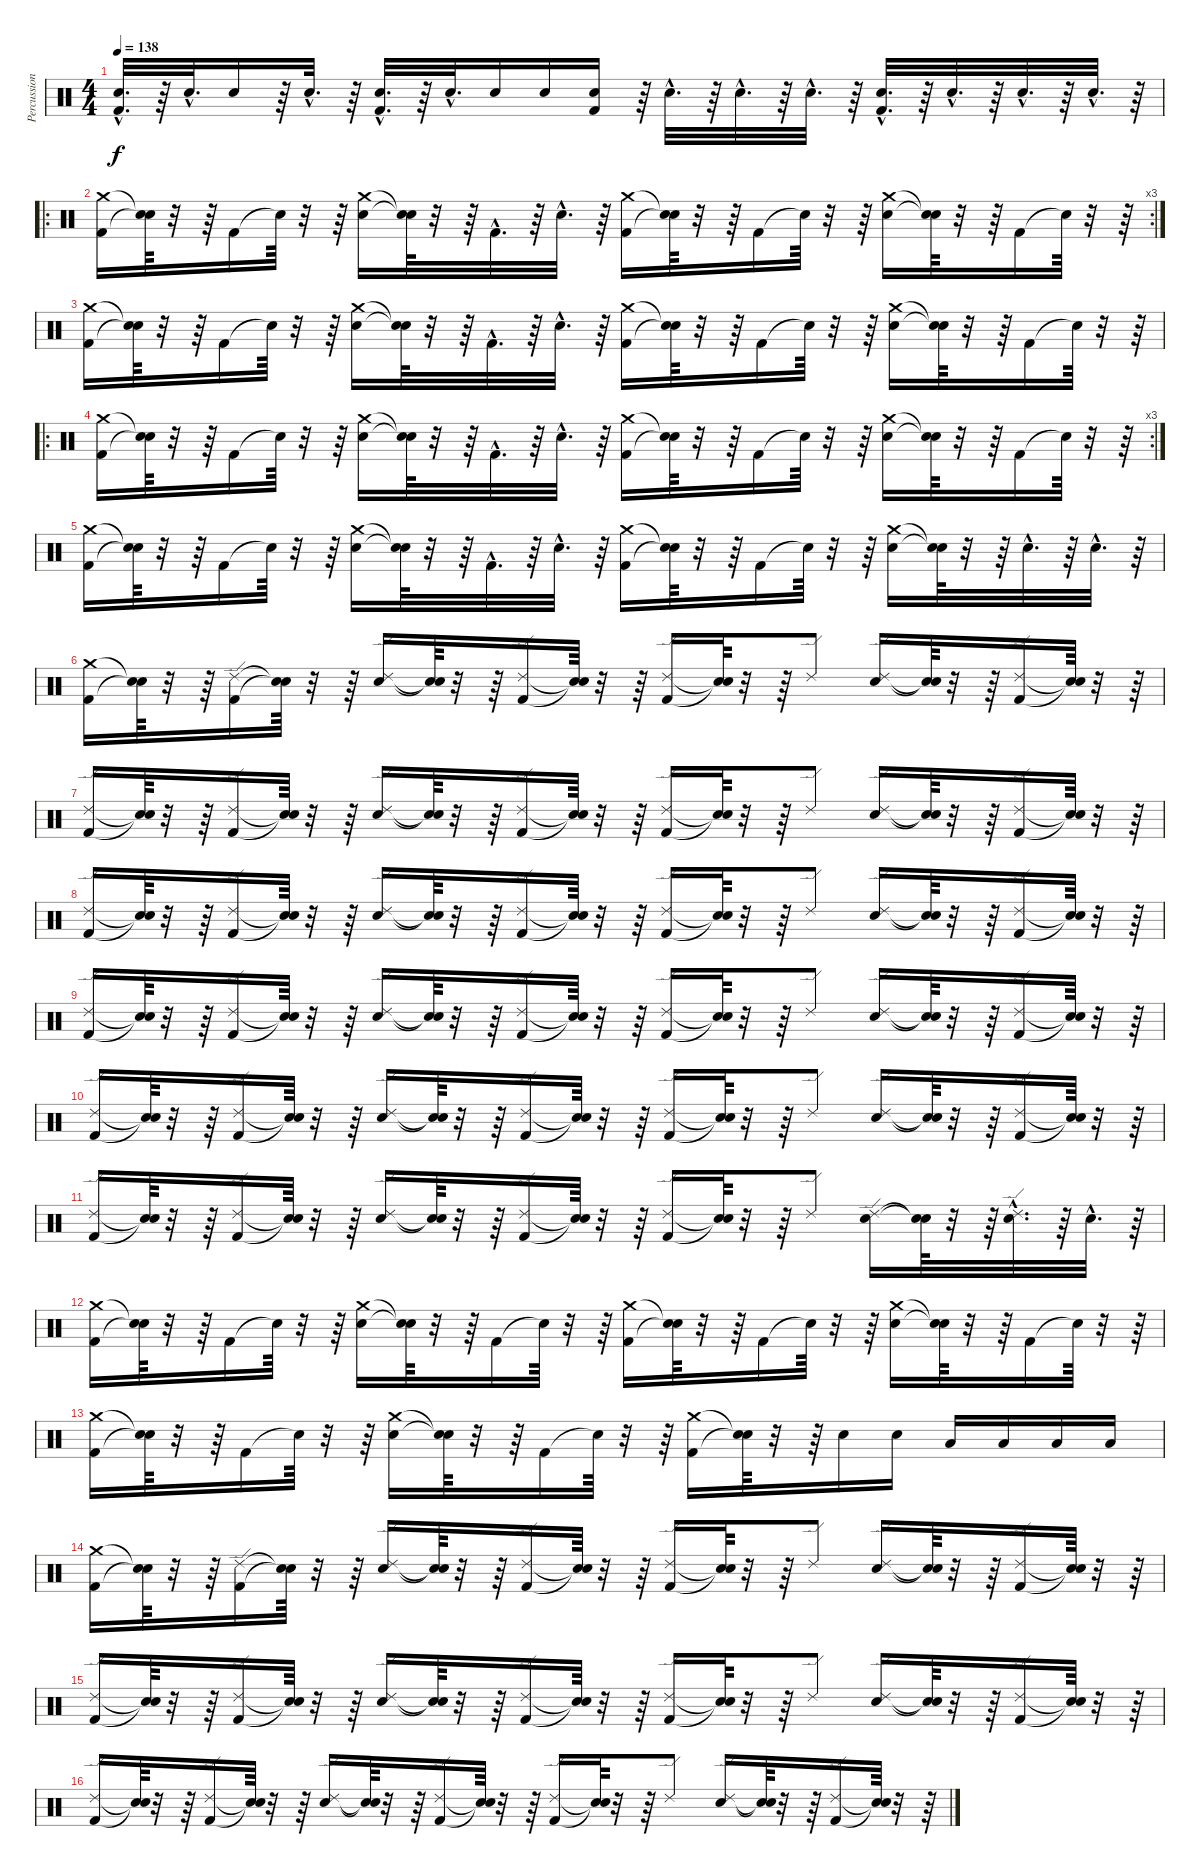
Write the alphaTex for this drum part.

\track ("Percussions" "Percussion") {instrument percussion}
\staff {score}
\articulation defaults
\ts (4 4)
\tempo 138
\clef neutral
\ks c
("Electric Snare (hit)"{hac} "Kick (hit) 2"{hac}).32{d dy f} r.64 "Electric Snare (hit)"{hac}.32{d} "Electric Snare (hit)".16 r.64 "Electric Snare (hit)"{hac}.32{d} r.64 ("Electric Snare (hit)"{hac} "Kick (hit) 2"{hac}).32{d} r.64 "Electric Snare (hit)"{hac}.32{d} "Electric Snare (hit)".16 "Electric Snare (hit)".16 ("Electric Snare (hit)" "Kick (hit) 2").16 r.64 "Electric Snare (hit)"{hac}.32{d} r.64 "Electric Snare (hit)"{hac}.32{d} r.64 "Electric Snare (hit)"{hac}.32{d} r.64 ("Electric Snare (hit)"{hac} "Kick (hit) 2"{hac}).32{d} r.64 "Electric Snare (hit)"{hac}.32{d} r.64 "Electric Snare (hit)"{hac}.32{d} r.64 "Electric Snare (hit)"{hac}.32{d} r.64 |
\ro
\rc 3
("Kick (hit) 2" "Crash medium (hit)").16 ("Snare (hit)"{t} "Snare (hit)"{t}).64 r.32 r.64 "Kick (hit) 2".16 "Snare (hit)"{t}.64 r.32 r.64 ("Electric Snare (hit)" "Crash medium (hit)").16 ("Snare (hit)"{t} "Snare (hit)"{t}).64 r.32 r.64 "Kick (hit) 2"{hac}.32{d} r.64 "Electric Snare (hit)"{hac}.32{d} r.64 ("Kick (hit) 2" "Crash medium (hit)").16 ("Snare (hit)"{t} "Snare (hit)"{t}).64 r.32 r.64 "Kick (hit) 2".16 "Snare (hit)"{t}.64 r.32 r.64 ("Electric Snare (hit)" "Crash medium (hit)").16 ("Snare (hit)"{t} "Snare (hit)"{t}).64 r.32 r.64 "Kick (hit) 2".16 "Snare (hit)"{t}.64 r.32 r.64 |
("Kick (hit) 2" "Crash medium (hit)").16 ("Snare (hit)"{t} "Snare (hit)"{t}).64 r.32 r.64 "Kick (hit) 2".16 "Snare (hit)"{t}.64 r.32 r.64 ("Electric Snare (hit)" "Crash medium (hit)").16 ("Snare (hit)"{t} "Snare (hit)"{t}).64 r.32 r.64 "Kick (hit) 2"{hac}.32{d} r.64 "Electric Snare (hit)"{hac}.32{d} r.64 ("Kick (hit) 2" "Crash medium (hit)").16 ("Snare (hit)"{t} "Snare (hit)"{t}).64 r.32 r.64 "Kick (hit) 2".16 "Snare (hit)"{t}.64 r.32 r.64 ("Electric Snare (hit)" "Crash medium (hit)").16 ("Snare (hit)"{t} "Snare (hit)"{t}).64 r.32 r.64 "Kick (hit) 2".16 "Snare (hit)"{t}.64 r.32 r.64 |
\ro
\rc 3
("Kick (hit) 2" "Crash medium (hit)").16 ("Snare (hit)"{t} "Snare (hit)"{t}).64 r.32 r.64 "Kick (hit) 2".16 "Snare (hit)"{t}.64 r.32 r.64 ("Electric Snare (hit)" "Crash medium (hit)").16 ("Snare (hit)"{t} "Snare (hit)"{t}).64 r.32 r.64 "Kick (hit) 2"{hac}.32{d} r.64 "Electric Snare (hit)"{hac}.32{d} r.64 ("Kick (hit) 2" "Crash medium (hit)").16 ("Snare (hit)"{t} "Snare (hit)"{t}).64 r.32 r.64 "Kick (hit) 2".16 "Snare (hit)"{t}.64 r.32 r.64 ("Electric Snare (hit)" "Crash medium (hit)").16 ("Snare (hit)"{t} "Snare (hit)"{t}).64 r.32 r.64 "Kick (hit) 2".16 "Snare (hit)"{t}.64 r.32 r.64 |
("Kick (hit) 2" "Crash medium (hit)").16 ("Snare (hit)"{t} "Snare (hit)"{t}).64 r.32 r.64 "Kick (hit) 2".16 "Snare (hit)"{t}.64 r.32 r.64 ("Electric Snare (hit)" "Crash medium (hit)").16 ("Snare (hit)"{t} "Snare (hit)"{t}).64 r.32 r.64 "Kick (hit) 2"{hac}.32{d} r.64 "Electric Snare (hit)"{hac}.32{d} r.64 ("Kick (hit) 2" "Crash medium (hit)").16 ("Snare (hit)"{t} "Snare (hit)"{t}).64 r.32 r.64 "Kick (hit) 2".16 "Snare (hit)"{t}.64 r.32 r.64 ("Electric Snare (hit)" "Crash medium (hit)").16 ("Snare (hit)"{t} "Snare (hit)"{t}).64 r.32 r.64 "Electric Snare (hit)"{hac}.32{d} r.64 "Electric Snare (hit)"{hac}.32{d} r.64 |
("Crash medium (hit)" "Kick (hit) 2").16 ("Snare (hit)"{t} "Snare (hit)"{t}).64 r.32 r.64 ("Ride (edge) 2" "Kick (hit) 2").16 ("Snare (hit)"{t} "Snare (hit)"{t}).64 r.32 r.64 ("Ride (edge) 2" "Electric Snare (hit)").16 ("Snare (hit)"{t} "Snare (hit)"{t}).64 r.32 r.64 ("Ride (edge) 2" "Kick (hit) 2").16 ("Snare (hit)"{t} "Snare (hit)"{t}).64 r.32 r.64 ("Ride (edge) 2" "Kick (hit) 2").16 ("Snare (hit)"{t} "Snare (hit)"{t}).64 r.32 r.64 "Ride (edge) 2".8 ("Ride (edge) 2" "Electric Snare (hit)").16 ("Snare (hit)"{t} "Snare (hit)"{t}).64 r.32 r.64 ("Ride (edge) 2" "Kick (hit) 2").16 ("Snare (hit)"{t} "Snare (hit)"{t}).64 r.32 r.64 |
("Ride (edge) 2" "Kick (hit) 2").16 ("Snare (hit)"{t} "Snare (hit)"{t}).64 r.32 r.64 ("Ride (edge) 2" "Kick (hit) 2").16 ("Snare (hit)"{t} "Snare (hit)"{t}).64 r.32 r.64 ("Ride (edge) 2" "Electric Snare (hit)").16 ("Snare (hit)"{t} "Snare (hit)"{t}).64 r.32 r.64 ("Ride (edge) 2" "Kick (hit) 2").16 ("Snare (hit)"{t} "Snare (hit)"{t}).64 r.32 r.64 ("Kick (hit) 2" "Ride (edge) 2").16 ("Snare (hit)"{t} "Snare (hit)"{t}).64 r.32 r.64 "Ride (edge) 2".8 ("Electric Snare (hit)" "Ride (edge) 2").16 ("Snare (hit)"{t} "Snare (hit)"{t}).64 r.32 r.64 ("Kick (hit) 2" "Ride (edge) 2").16 ("Snare (hit)"{t} "Snare (hit)"{t}).64 r.32 r.64 |
("Kick (hit) 2" "Ride (edge) 2").16 ("Snare (hit)"{t} "Snare (hit)"{t}).64 r.32 r.64 ("Kick (hit) 2" "Ride (edge) 2").16 ("Snare (hit)"{t} "Snare (hit)"{t}).64 r.32 r.64 ("Electric Snare (hit)" "Ride (edge) 2").16 ("Snare (hit)"{t} "Snare (hit)"{t}).64 r.32 r.64 ("Kick (hit) 2" "Ride (edge) 2").16 ("Snare (hit)"{t} "Snare (hit)"{t}).64 r.32 r.64 ("Kick (hit) 2" "Ride (edge) 2").16 ("Snare (hit)"{t} "Snare (hit)"{t}).64 r.32 r.64 "Ride (edge) 2".8 ("Electric Snare (hit)" "Ride (edge) 2").16 ("Snare (hit)"{t} "Snare (hit)"{t}).64 r.32 r.64 ("Kick (hit) 2" "Ride (edge) 2").16 ("Snare (hit)"{t} "Snare (hit)"{t}).64 r.32 r.64 |
("Kick (hit) 2" "Ride (edge) 2").16 ("Snare (hit)"{t} "Snare (hit)"{t}).64 r.32 r.64 ("Kick (hit) 2" "Ride (edge) 2").16 ("Snare (hit)"{t} "Snare (hit)"{t}).64 r.32 r.64 ("Electric Snare (hit)" "Ride (edge) 2").16 ("Snare (hit)"{t} "Snare (hit)"{t}).64 r.32 r.64 ("Kick (hit) 2" "Ride (edge) 2").16 ("Snare (hit)"{t} "Snare (hit)"{t}).64 r.32 r.64 ("Kick (hit) 2" "Ride (edge) 2").16 ("Snare (hit)"{t} "Snare (hit)"{t}).64 r.32 r.64 "Ride (edge) 2".8 ("Electric Snare (hit)" "Ride (edge) 2").16 ("Snare (hit)"{t} "Snare (hit)"{t}).64 r.32 r.64 ("Kick (hit) 2" "Ride (edge) 2").16 ("Snare (hit)"{t} "Snare (hit)"{t}).64 r.32 r.64 |
("Kick (hit) 2" "Ride (edge) 2").16 ("Snare (hit)"{t} "Snare (hit)"{t}).64 r.32 r.64 ("Kick (hit) 2" "Ride (edge) 2").16 ("Snare (hit)"{t} "Snare (hit)"{t}).64 r.32 r.64 ("Electric Snare (hit)" "Ride (edge) 2").16 ("Snare (hit)"{t} "Snare (hit)"{t}).64 r.32 r.64 ("Kick (hit) 2" "Ride (edge) 2").16 ("Snare (hit)"{t} "Snare (hit)"{t}).64 r.32 r.64 ("Kick (hit) 2" "Ride (edge) 2").16 ("Snare (hit)"{t} "Snare (hit)"{t}).64 r.32 r.64 "Ride (edge) 2".8 ("Electric Snare (hit)" "Ride (edge) 2").16 ("Snare (hit)"{t} "Snare (hit)"{t}).64 r.32 r.64 ("Kick (hit) 2" "Ride (edge) 2").16 ("Snare (hit)"{t} "Snare (hit)"{t}).64 r.32 r.64 |
("Kick (hit) 2" "Ride (edge) 2").16 ("Snare (hit)"{t} "Snare (hit)"{t}).64 r.32 r.64 ("Kick (hit) 2" "Ride (edge) 2").16 ("Snare (hit)"{t} "Snare (hit)"{t}).64 r.32 r.64 ("Electric Snare (hit)" "Ride (edge) 2").16 ("Snare (hit)"{t} "Snare (hit)"{t}).64 r.32 r.64 ("Kick (hit) 2" "Ride (edge) 2").16 ("Snare (hit)"{t} "Snare (hit)"{t}).64 r.32 r.64 ("Kick (hit) 2" "Ride (edge) 2").16 ("Snare (hit)"{t} "Snare (hit)"{t}).64 r.32 r.64 "Ride (edge) 2".8 ("Electric Snare (hit)" "Ride (edge) 2").16 ("Snare (hit)"{t} "Snare (hit)"{t}).64 r.32 r.64 ("Electric Snare (hit)"{hac} "Ride (edge) 2"{hac}).32{d} r.64 "Electric Snare (hit)"{hac}.32{d} r.64 |
("Crash medium (hit)" "Kick (hit) 2").16 ("Snare (hit)"{t} "Snare (hit)"{t}).64 r.32 r.64 "Kick (hit) 2".16 "Snare (hit)"{t}.64 r.32 r.64 ("Crash medium (hit)" "Electric Snare (hit)").16 ("Snare (hit)"{t} "Snare (hit)"{t}).64 r.32 r.64 "Kick (hit) 2".16 "Snare (hit)"{t}.64 r.32 r.64 ("Crash medium (hit)" "Kick (hit) 2").16 ("Snare (hit)"{t} "Snare (hit)"{t}).64 r.32 r.64 "Kick (hit) 2".16 "Snare (hit)"{t}.64 r.32 r.64 ("Crash medium (hit)" "Electric Snare (hit)").16 ("Snare (hit)"{t} "Snare (hit)"{t}).64 r.32 r.64 "Kick (hit) 2".16 "Snare (hit)"{t}.64 r.32 r.64 |
("Crash medium (hit)" "Kick (hit) 2").16 ("Snare (hit)"{t} "Snare (hit)"{t}).64 r.32 r.64 "Kick (hit) 2".16 "Snare (hit)"{t}.64 r.32 r.64 ("Crash medium (hit)" "Electric Snare (hit)").16 ("Snare (hit)"{t} "Snare (hit)"{t}).64 r.32 r.64 "Kick (hit) 2".16 "Snare (hit)"{t}.64 r.32 r.64 ("Crash medium (hit)" "Kick (hit) 2").16 ("Snare (hit)"{t} "Snare (hit)"{t}).64 r.32 r.64 "Electric Snare (hit)".16 "Electric Snare (hit)".16 "Low Floor Tom (hit)".16 "Low Floor Tom (hit)".16 "Low Floor Tom (hit)".16 "Low Floor Tom (hit)".16 |
("Crash medium (hit)" "Kick (hit) 2").16 ("Snare (hit)"{t} "Snare (hit)"{t}).64 r.32 r.64 ("Ride (edge) 2" "Kick (hit) 2").16 ("Snare (hit)"{t} "Snare (hit)"{t}).64 r.32 r.64 ("Ride (edge) 2" "Electric Snare (hit)").16 ("Snare (hit)"{t} "Snare (hit)"{t}).64 r.32 r.64 ("Ride (edge) 2" "Kick (hit) 2").16 ("Snare (hit)"{t} "Snare (hit)"{t}).64 r.32 r.64 ("Ride (edge) 2" "Kick (hit) 2").16 ("Snare (hit)"{t} "Snare (hit)"{t}).64 r.32 r.64 "Ride (edge) 2".8 ("Ride (edge) 2" "Electric Snare (hit)").16 ("Snare (hit)"{t} "Snare (hit)"{t}).64 r.32 r.64 ("Ride (edge) 2" "Kick (hit) 2").16 ("Snare (hit)"{t} "Snare (hit)"{t}).64 r.32 r.64 |
("Ride (edge) 2" "Kick (hit) 2").16 ("Snare (hit)"{t} "Snare (hit)"{t}).64 r.32 r.64 ("Ride (edge) 2" "Kick (hit) 2").16 ("Snare (hit)"{t} "Snare (hit)"{t}).64 r.32 r.64 ("Ride (edge) 2" "Electric Snare (hit)").16 ("Snare (hit)"{t} "Snare (hit)"{t}).64 r.32 r.64 ("Ride (edge) 2" "Kick (hit) 2").16 ("Snare (hit)"{t} "Snare (hit)"{t}).64 r.32 r.64 ("Kick (hit) 2" "Ride (edge) 2").16 ("Snare (hit)"{t} "Snare (hit)"{t}).64 r.32 r.64 "Ride (edge) 2".8 ("Electric Snare (hit)" "Ride (edge) 2").16 ("Snare (hit)"{t} "Snare (hit)"{t}).64 r.32 r.64 ("Kick (hit) 2" "Ride (edge) 2").16 ("Snare (hit)"{t} "Snare (hit)"{t}).64 r.32 r.64 |
("Kick (hit) 2" "Ride (edge) 2").16 ("Snare (hit)"{t} "Snare (hit)"{t}).64 r.32 r.64 ("Kick (hit) 2" "Ride (edge) 2").16 ("Snare (hit)"{t} "Snare (hit)"{t}).64 r.32 r.64 ("Electric Snare (hit)" "Ride (edge) 2").16 ("Snare (hit)"{t} "Snare (hit)"{t}).64 r.32 r.64 ("Kick (hit) 2" "Ride (edge) 2").16 ("Snare (hit)"{t} "Snare (hit)"{t}).64 r.32 r.64 ("Kick (hit) 2" "Ride (edge) 2").16 ("Snare (hit)"{t} "Snare (hit)"{t}).64 r.32 r.64 "Ride (edge) 2".8 ("Electric Snare (hit)" "Ride (edge) 2").16 ("Snare (hit)"{t} "Snare (hit)"{t}).64 r.32 r.64 ("Kick (hit) 2" "Ride (edge) 2").16 ("Snare (hit)"{t} "Snare (hit)"{t}).64 r.32 r.64
